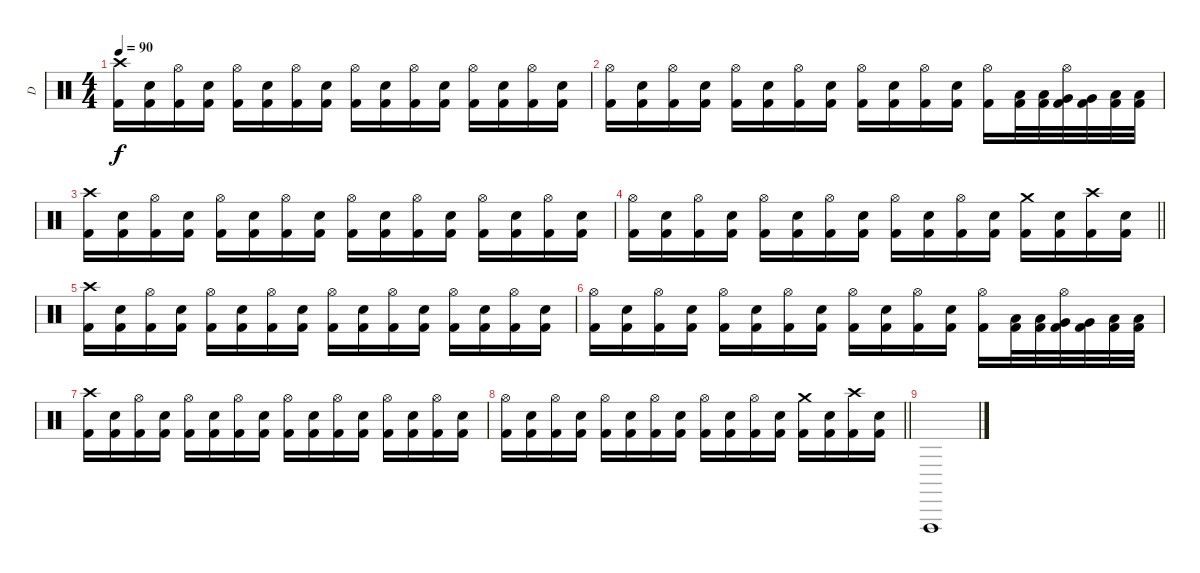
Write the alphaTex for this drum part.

\track ("D" "D") {instrument percussion}
\staff {score}
\articulation defaults
\ts (4 4)
\tempo 90
\clef neutral
\ks c
("Crash high (hit)" "Kick (hit) 2").16{dy f} ("Electric Snare (hit)" "Kick (hit) 2").16 ("Hi-Hat (open)" "Kick (hit) 2").16 ("Electric Snare (hit)" "Kick (hit) 2").16 ("Hi-Hat (open)" "Kick (hit) 2").16 ("Electric Snare (hit)" "Kick (hit) 2").16 ("Hi-Hat (open)" "Kick (hit) 2").16 ("Electric Snare (hit)" "Kick (hit) 2").16 ("Hi-Hat (open)" "Kick (hit) 2").16 ("Electric Snare (hit)" "Kick (hit) 2").16 ("Hi-Hat (open)" "Kick (hit) 2").16 ("Electric Snare (hit)" "Kick (hit) 2").16 ("Hi-Hat (open)" "Kick (hit) 2").16 ("Electric Snare (hit)" "Kick (hit) 2").16 ("Hi-Hat (open)" "Kick (hit) 2").16 ("Electric Snare (hit)" "Kick (hit) 2").16 |
("Hi-Hat (open)" "Kick (hit) 2").16 ("Electric Snare (hit)" "Kick (hit) 2").16 ("Hi-Hat (open)" "Kick (hit) 2").16 ("Electric Snare (hit)" "Kick (hit) 2").16 ("Hi-Hat (open)" "Kick (hit) 2").16 ("Electric Snare (hit)" "Kick (hit) 2").16 ("Hi-Hat (open)" "Kick (hit) 2").16 ("Electric Snare (hit)" "Kick (hit) 2").16 ("Hi-Hat (open)" "Kick (hit) 2").16 ("Electric Snare (hit)" "Kick (hit) 2").16 ("Hi-Hat (open)" "Kick (hit) 2").16 ("Electric Snare (hit)" "Kick (hit) 2").16 ("Hi-Hat (open)" "Kick (hit) 2").16 ("Low Tom (hit)" "Kick (hit) 2").32 ("Low Tom (hit)" "Kick (hit) 2").32 ("Hi-Hat (open)" "Very Low Tom (hit)" "Kick (hit) 2").32 ("Very Low Tom (hit)" "Kick (hit) 2").32 ("Low Floor Tom (hit)" "Kick (hit) 2").32 ("Low Floor Tom (hit)" "Kick (hit) 2").32 |
("Crash high (hit)" "Kick (hit) 2").16 ("Electric Snare (hit)" "Kick (hit) 2").16 ("Hi-Hat (open)" "Kick (hit) 2").16 ("Electric Snare (hit)" "Kick (hit) 2").16 ("Hi-Hat (open)" "Kick (hit) 2").16 ("Electric Snare (hit)" "Kick (hit) 2").16 ("Hi-Hat (open)" "Kick (hit) 2").16 ("Electric Snare (hit)" "Kick (hit) 2").16 ("Hi-Hat (open)" "Kick (hit) 2").16 ("Electric Snare (hit)" "Kick (hit) 2").16 ("Hi-Hat (open)" "Kick (hit) 2").16 ("Electric Snare (hit)" "Kick (hit) 2").16 ("Hi-Hat (open)" "Kick (hit) 2").16 ("Electric Snare (hit)" "Kick (hit) 2").16 ("Hi-Hat (open)" "Kick (hit) 2").16 ("Electric Snare (hit)" "Kick (hit) 2").16 |
\barLineRight lightlight
("Hi-Hat (open)" "Kick (hit) 2").16 ("Electric Snare (hit)" "Kick (hit) 2").16 ("Hi-Hat (open)" "Kick (hit) 2").16 ("Electric Snare (hit)" "Kick (hit) 2").16 ("Hi-Hat (open)" "Kick (hit) 2").16 ("Electric Snare (hit)" "Kick (hit) 2").16 ("Hi-Hat (open)" "Kick (hit) 2").16 ("Electric Snare (hit)" "Kick (hit) 2").16 ("Hi-Hat (open)" "Kick (hit) 2").16 ("Electric Snare (hit)" "Kick (hit) 2").16 ("Hi-Hat (open)" "Kick (hit) 2").16 ("Electric Snare (hit)" "Kick (hit) 2").16 ("Crash medium (hit)" "Kick (hit) 2").16 ("Electric Snare (hit)" "Kick (hit) 2").16 ("Crash high (hit)" "Kick (hit) 2").16 ("Electric Snare (hit)" "Kick (hit) 2").16 |
("Crash high (hit)" "Kick (hit) 2").16 ("Electric Snare (hit)" "Kick (hit) 2").16 ("Hi-Hat (open)" "Kick (hit) 2").16 ("Electric Snare (hit)" "Kick (hit) 2").16 ("Hi-Hat (open)" "Kick (hit) 2").16 ("Electric Snare (hit)" "Kick (hit) 2").16 ("Hi-Hat (open)" "Kick (hit) 2").16 ("Electric Snare (hit)" "Kick (hit) 2").16 ("Hi-Hat (open)" "Kick (hit) 2").16 ("Electric Snare (hit)" "Kick (hit) 2").16 ("Hi-Hat (open)" "Kick (hit) 2").16 ("Electric Snare (hit)" "Kick (hit) 2").16 ("Hi-Hat (open)" "Kick (hit) 2").16 ("Electric Snare (hit)" "Kick (hit) 2").16 ("Hi-Hat (open)" "Kick (hit) 2").16 ("Electric Snare (hit)" "Kick (hit) 2").16 |
("Hi-Hat (open)" "Kick (hit) 2").16 ("Electric Snare (hit)" "Kick (hit) 2").16 ("Hi-Hat (open)" "Kick (hit) 2").16 ("Electric Snare (hit)" "Kick (hit) 2").16 ("Hi-Hat (open)" "Kick (hit) 2").16 ("Electric Snare (hit)" "Kick (hit) 2").16 ("Hi-Hat (open)" "Kick (hit) 2").16 ("Electric Snare (hit)" "Kick (hit) 2").16 ("Hi-Hat (open)" "Kick (hit) 2").16 ("Electric Snare (hit)" "Kick (hit) 2").16 ("Hi-Hat (open)" "Kick (hit) 2").16 ("Electric Snare (hit)" "Kick (hit) 2").16 ("Hi-Hat (open)" "Kick (hit) 2").16 ("Low Tom (hit)" "Kick (hit) 2").32 ("Low Tom (hit)" "Kick (hit) 2").32 ("Hi-Hat (open)" "Very Low Tom (hit)" "Kick (hit) 2").32 ("Very Low Tom (hit)" "Kick (hit) 2").32 ("Low Floor Tom (hit)" "Kick (hit) 2").32 ("Low Floor Tom (hit)" "Kick (hit) 2").32 |
("Crash high (hit)" "Kick (hit) 2").16 ("Electric Snare (hit)" "Kick (hit) 2").16 ("Hi-Hat (open)" "Kick (hit) 2").16 ("Electric Snare (hit)" "Kick (hit) 2").16 ("Hi-Hat (open)" "Kick (hit) 2").16 ("Electric Snare (hit)" "Kick (hit) 2").16 ("Hi-Hat (open)" "Kick (hit) 2").16 ("Electric Snare (hit)" "Kick (hit) 2").16 ("Hi-Hat (open)" "Kick (hit) 2").16 ("Electric Snare (hit)" "Kick (hit) 2").16 ("Hi-Hat (open)" "Kick (hit) 2").16 ("Electric Snare (hit)" "Kick (hit) 2").16 ("Hi-Hat (open)" "Kick (hit) 2").16 ("Electric Snare (hit)" "Kick (hit) 2").16 ("Hi-Hat (open)" "Kick (hit) 2").16 ("Electric Snare (hit)" "Kick (hit) 2").16 |
\barLineRight lightlight
("Hi-Hat (open)" "Kick (hit) 2").16 ("Electric Snare (hit)" "Kick (hit) 2").16 ("Hi-Hat (open)" "Kick (hit) 2").16 ("Electric Snare (hit)" "Kick (hit) 2").16 ("Hi-Hat (open)" "Kick (hit) 2").16 ("Electric Snare (hit)" "Kick (hit) 2").16 ("Hi-Hat (open)" "Kick (hit) 2").16 ("Electric Snare (hit)" "Kick (hit) 2").16 ("Hi-Hat (open)" "Kick (hit) 2").16 ("Electric Snare (hit)" "Kick (hit) 2").16 ("Hi-Hat (open)" "Kick (hit) 2").16 ("Electric Snare (hit)" "Kick (hit) 2").16 ("Crash medium (hit)" "Kick (hit) 2").16 ("Electric Snare (hit)" "Kick (hit) 2").16 ("Crash high (hit)" "Kick (hit) 2").16 ("Electric Snare (hit)" "Kick (hit) 2").16 |
"Vibraslap (hit)".1
